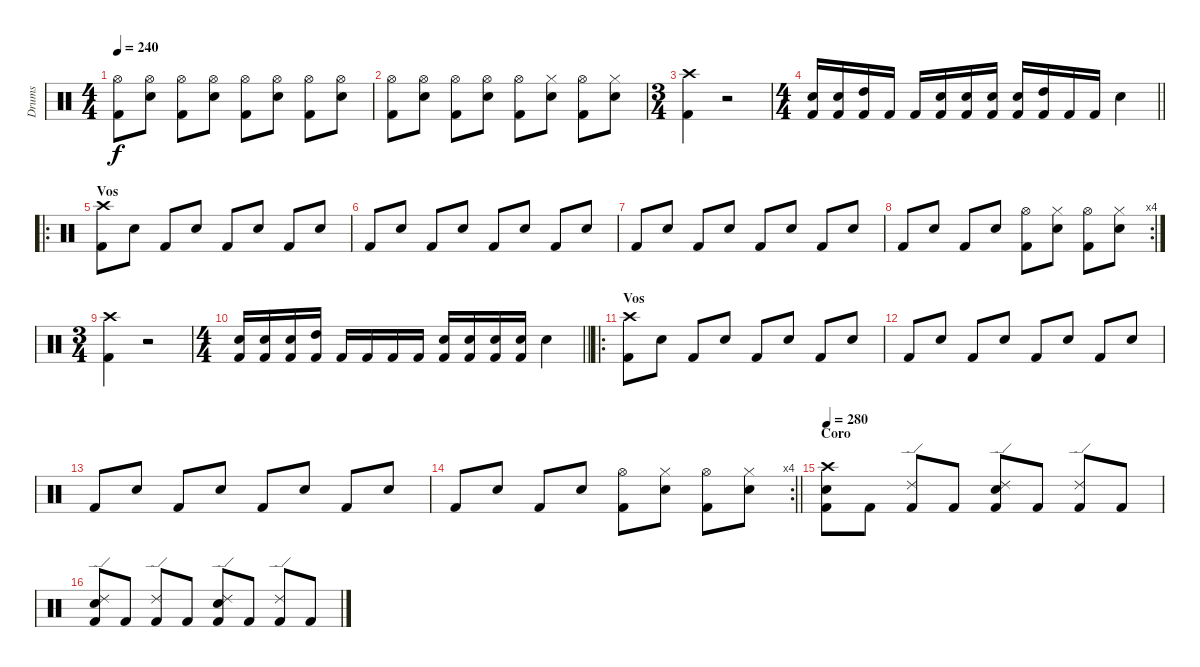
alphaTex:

\track ("Drums" "Drums") {instrument percussion}
\staff {score}
\articulation defaults
\ts (4 4)
\tempo 240
\clef neutral
\ks c
("Hi-Hat (open)" "Kick (hit) 2").8{dy f} ("Hi-Hat (open)" "Snare (hit) 2").8 ("Hi-Hat (open)" "Kick (hit) 2").8 ("Hi-Hat (open)" "Snare (hit) 2").8 ("Hi-Hat (open)" "Kick (hit) 2").8 ("Hi-Hat (open)" "Snare (hit) 2").8 ("Hi-Hat (open)" "Kick (hit) 2").8 ("Hi-Hat (open)" "Snare (hit) 2").8 |
("Hi-Hat (open)" "Kick (hit) 2").8 ("Hi-Hat (open)" "Snare (hit) 2").8 ("Hi-Hat (open)" "Kick (hit) 2").8 ("Hi-Hat (open)" "Snare (hit) 2").8 ("Hi-Hat (open)" "Kick (hit) 2").8 ("Hi-Hat (closed)" "Snare (hit) 2").8 ("Hi-Hat (open)" "Kick (hit) 2").8 ("Hi-Hat (closed)" "Snare (hit) 2").8 |
\ts (3 4)
("Crash high (hit)" "Kick (hit) 2").4 r.2 |
\ts (4 4)
\barLineRight lightlight
("Snare (hit) 2" "Kick (hit) 2").16 ("Snare (hit) 2" "Kick (hit) 2").16 ("Kick (hit) 2" "High Tom (hit)").16 "Kick (hit) 2".16 "Kick (hit) 2".16 ("Snare (hit) 2" "Kick (hit) 2").16 ("Snare (hit) 2" "Kick (hit) 2").16 ("Snare (hit) 2" "Kick (hit) 2").16 ("Snare (hit) 2" "Kick (hit) 2").16 ("Kick (hit) 2" "High Tom (hit)").16 "Kick (hit) 2".16 "Kick (hit) 2".16 "Snare (hit) 2".4 |
\ro
\section ("" "Vos")
("Crash high (hit)" "Kick (hit) 2").8 "Snare (hit) 2".8 "Kick (hit) 2".8 "Snare (hit) 2".8 "Kick (hit) 2".8 "Snare (hit) 2".8 "Kick (hit) 2".8 "Snare (hit) 2".8 |
"Kick (hit) 2".8 "Snare (hit) 2".8 "Kick (hit) 2".8 "Snare (hit) 2".8 "Kick (hit) 2".8 "Snare (hit) 2".8 "Kick (hit) 2".8 "Snare (hit) 2".8 |
"Kick (hit) 2".8 "Snare (hit) 2".8 "Kick (hit) 2".8 "Snare (hit) 2".8 "Kick (hit) 2".8 "Snare (hit) 2".8 "Kick (hit) 2".8 "Snare (hit) 2".8 |
\rc 4 "Kick (hit) 2".8 "Snare (hit) 2".8 "Kick (hit) 2".8 "Snare (hit) 2".8
("Hi-Hat (open)" "Kick (hit) 2").8 ("Hi-Hat (closed)" "Snare (hit) 2").8 ("Hi-Hat (open)" "Kick (hit) 2").8 ("Hi-Hat (closed)" "Snare (hit) 2").8 |
\ts (3 4)
("Crash high (hit)" "Kick (hit) 2").4 r.2 |
\ts (4 4)
\barLineRight lightlight
("Snare (hit) 2" "Kick (hit) 2").16 ("Snare (hit) 2" "Kick (hit) 2").16 ("Snare (hit) 2" "Kick (hit) 2").16 ("Kick (hit) 2" "High Tom (hit)").16 "Kick (hit) 2".16 "Kick (hit) 2".16 "Kick (hit) 2".16 "Kick (hit) 2".16 ("Snare (hit) 2" "Kick (hit) 2").16 ("Snare (hit) 2" "Kick (hit) 2").16 ("Snare (hit) 2" "Kick (hit) 2").16 ("Snare (hit) 2" "Kick (hit) 2").16 "Snare (hit) 2".4 |
\ro
\section ("" "Vos")
("Crash high (hit)" "Kick (hit) 2").8 "Snare (hit) 2".8 "Kick (hit) 2".8 "Snare (hit) 2".8 "Kick (hit) 2".8 "Snare (hit) 2".8 "Kick (hit) 2".8 "Snare (hit) 2".8 |
"Kick (hit) 2".8 "Snare (hit) 2".8 "Kick (hit) 2".8 "Snare (hit) 2".8 "Kick (hit) 2".8 "Snare (hit) 2".8 "Kick (hit) 2".8 "Snare (hit) 2".8 |
"Kick (hit) 2".8 "Snare (hit) 2".8 "Kick (hit) 2".8 "Snare (hit) 2".8 "Kick (hit) 2".8 "Snare (hit) 2".8 "Kick (hit) 2".8 "Snare (hit) 2".8 |
\rc 4
\barLineRight lightlight "Kick (hit) 2".8 "Snare (hit) 2".8 "Kick (hit) 2".8 "Snare (hit) 2".8
("Hi-Hat (open)" "Kick (hit) 2").8 ("Hi-Hat (closed)" "Snare (hit) 2").8 ("Hi-Hat (open)" "Kick (hit) 2").8 ("Hi-Hat (closed)" "Snare (hit) 2").8 |
\section ("" "Coro")
\tempo 280
("Crash high (hit)" "Snare (hit) 2" "Kick (hit) 2").8 "Kick (hit) 2".8 ("Ride (edge) 2" "Kick (hit) 2").8 "Kick (hit) 2".8 ("Ride (edge) 2" "Snare (hit) 2" "Kick (hit) 2").8 "Kick (hit) 2".8 ("Ride (edge) 2" "Kick (hit) 2").8 "Kick (hit) 2".8 |
("Ride (edge) 2" "Snare (hit) 2" "Kick (hit) 2").8 "Kick (hit) 2".8 ("Ride (edge) 2" "Kick (hit) 2").8 "Kick (hit) 2".8 ("Ride (edge) 2" "Snare (hit) 2" "Kick (hit) 2").8 "Kick (hit) 2".8 ("Ride (edge) 2" "Kick (hit) 2").8 "Kick (hit) 2".8
